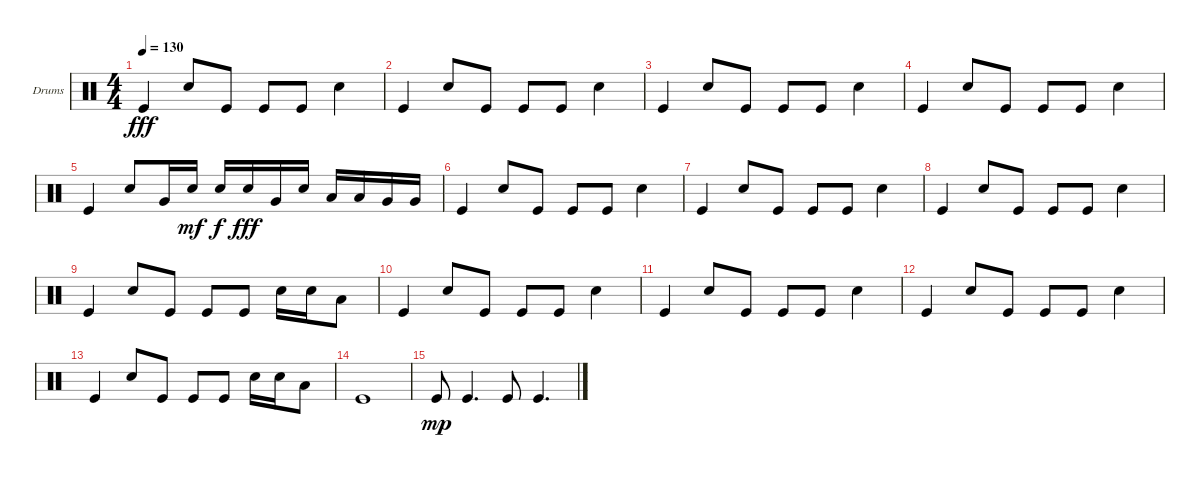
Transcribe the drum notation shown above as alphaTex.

\defaultSystemsLayout 4
\bracketExtendMode groupsimilarinstruments
\firstSystemTrackNameOrientation horizontal
\otherSystemsTrackNameOrientation horizontal
\track ("Helders" "Drums") {instrument percussion}
\staff {score}
\articulation defaults
\ts (4 4)
\tempo 130
\clef neutral
\ks c "Kick (hit)".4{dy fff} "Snare (hit) 2".8 "Kick (hit)".8 "Kick (hit)".8 "Kick (hit)".8 "Snare (hit) 2".4
|
"Kick (hit)".4 "Snare (hit) 2".8 "Kick (hit)".8 "Kick (hit)".8 "Kick (hit)".8 "Snare (hit) 2".4 |
"Kick (hit)".4 "Snare (hit) 2".8 "Kick (hit)".8 "Kick (hit)".8 "Kick (hit)".8 "Snare (hit) 2".4 |
"Kick (hit)".4 "Snare (hit) 2".8 "Kick (hit)".8 "Kick (hit)".8 "Kick (hit)".8 "Snare (hit) 2".4 |
"Kick (hit)".4 "Snare (hit) 2".8 "Very Low Tom (hit)".16 "Snare (hit) 2".16{dy mf} "Snare (hit) 2".16{dy f} "Snare (hit) 2".16{dy fff} "Very Low Tom (hit)".16 "Snare (hit) 2".16 "Low Tom (hit)".16 "Low Tom (hit)".16 "Very Low Tom (hit)".16 "Very Low Tom (hit)".16 |
"Kick (hit)".4 "Snare (hit) 2".8 "Kick (hit)".8 "Kick (hit)".8 "Kick (hit)".8 "Snare (hit) 2".4 |
"Kick (hit)".4 "Snare (hit) 2".8 "Kick (hit)".8 "Kick (hit)".8 "Kick (hit)".8 "Snare (hit) 2".4 |
"Kick (hit)".4 "Snare (hit) 2".8 "Kick (hit)".8 "Kick (hit)".8 "Kick (hit)".8 "Snare (hit) 2".4 |
"Kick (hit)".4 "Snare (hit) 2".8 "Kick (hit)".8 "Kick (hit)".8 "Kick (hit)".8 "Snare (hit) 2".16 "Snare (hit) 2".16 "Low Tom (hit)".8 |
"Kick (hit)".4 "Snare (hit) 2".8 "Kick (hit)".8 "Kick (hit)".8 "Kick (hit)".8 "Snare (hit) 2".4 |
"Kick (hit)".4 "Snare (hit) 2".8 "Kick (hit)".8 "Kick (hit)".8 "Kick (hit)".8 "Snare (hit) 2".4 |
"Kick (hit)".4 "Snare (hit) 2".8 "Kick (hit)".8 "Kick (hit)".8 "Kick (hit)".8 "Snare (hit) 2".4 |
"Kick (hit)".4 "Snare (hit) 2".8 "Kick (hit)".8 "Kick (hit)".8 "Kick (hit)".8 "Snare (hit) 2".16 "Snare (hit) 2".16 "Low Tom (hit)".8 |
"Kick (hit)".1 |
"Kick (hit)".8{dy mp} "Kick (hit)".4{d} "Kick (hit)".8 "Kick (hit)".4{d}
